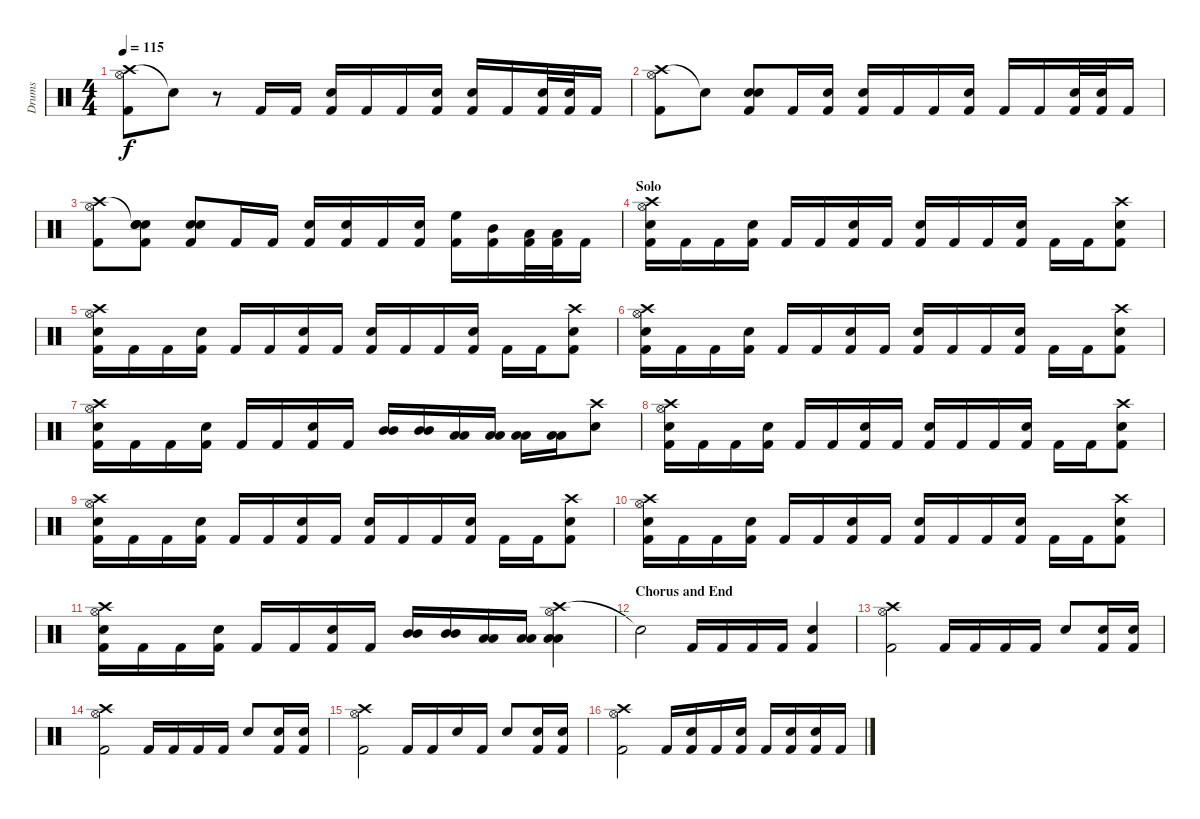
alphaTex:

\track ("Drums" "Drums") {instrument percussion}
\staff {score}
\articulation defaults
\ts (4 4)
\tempo 115
\clef neutral
\ks c
("Crash high (hit)" "Hi-Hat (open)" "Kick (hit) 2").8{dy f} "Snare (hit)"{t}.8 r.8 "Kick (hit) 2".16 "Kick (hit) 2".16 ("Electric Snare (hit)" "Kick (hit) 2").16 "Kick (hit) 2".16 "Kick (hit) 2".16 ("Electric Snare (hit)" "Kick (hit) 2").16 ("Electric Snare (hit)" "Kick (hit) 2").16 "Kick (hit) 2".16 ("Electric Snare (hit)" "Kick (hit) 2").32 ("Electric Snare (hit)" "Kick (hit) 2").32 "Kick (hit) 2".16 |
("Crash high (hit)" "Hi-Hat (open)" "Kick (hit) 2").8 "Snare (hit)"{t}.8 ("Electric Snare (hit)" "Electric Snare (hit)" "Kick (hit) 2").8 "Kick (hit) 2".16 ("Electric Snare (hit)" "Kick (hit) 2").16 ("Electric Snare (hit)" "Kick (hit) 2").16 "Kick (hit) 2".16 "Kick (hit) 2".16 ("Electric Snare (hit)" "Kick (hit) 2").16 "Kick (hit) 2".16 "Kick (hit) 2".16 ("Electric Snare (hit)" "Kick (hit) 2").32 ("Electric Snare (hit)" "Kick (hit) 2").32 "Kick (hit) 2".16 |
("Crash high (hit)" "Hi-Hat (open)" "Kick (hit) 2").8 ("Snare (hit)"{t} "Electric Snare (hit)" "Electric Snare (hit)" "Kick (hit) 2").8 ("Electric Snare (hit)" "Electric Snare (hit)" "Kick (hit) 2").8 "Kick (hit) 2".16 "Kick (hit) 2".16 ("Electric Snare (hit)" "Kick (hit) 2").16 ("Electric Snare (hit)" "Kick (hit) 2").16 "Kick (hit) 2".16 ("Electric Snare (hit)" "Kick (hit) 2").16 ("High Floor Tom (hit)" "Kick (hit) 2").16 ("Mid Tom (hit)" "Kick (hit) 2").16 ("Low Tom (hit)" "Kick (hit) 2").32 ("Low Floor Tom (hit)" "Kick (hit) 2").32 "Kick (hit) 2".16 |
\section ("" "Solo")
("Crash high (hit)" "Hi-Hat (open)" "Electric Snare (hit)" "Kick (hit) 2").16 "Kick (hit) 2".16 "Kick (hit) 2".16 ("Electric Snare (hit)" "Kick (hit) 2").16 "Kick (hit) 2".16 "Kick (hit) 2".16 ("Electric Snare (hit)" "Kick (hit) 2").16 "Kick (hit) 2".16 ("Electric Snare (hit)" "Kick (hit) 2").16 "Kick (hit) 2".16 "Kick (hit) 2".16 ("Electric Snare (hit)" "Kick (hit) 2").16 "Kick (hit) 2".16 "Kick (hit) 2".16 ("Crash high (hit)" "Electric Snare (hit)" "Kick (hit) 2").8 |
("Crash high (hit)" "Hi-Hat (open)" "Electric Snare (hit)" "Kick (hit) 2").16 "Kick (hit) 2".16 "Kick (hit) 2".16 ("Electric Snare (hit)" "Kick (hit) 2").16 "Kick (hit) 2".16 "Kick (hit) 2".16 ("Electric Snare (hit)" "Kick (hit) 2").16 "Kick (hit) 2".16 ("Electric Snare (hit)" "Kick (hit) 2").16 "Kick (hit) 2".16 "Kick (hit) 2".16 ("Electric Snare (hit)" "Kick (hit) 2").16 "Kick (hit) 2".16 "Kick (hit) 2".16 ("Crash high (hit)" "Electric Snare (hit)" "Kick (hit) 2").8 |
("Crash high (hit)" "Hi-Hat (open)" "Electric Snare (hit)" "Kick (hit) 2").16 "Kick (hit) 2".16 "Kick (hit) 2".16 ("Electric Snare (hit)" "Kick (hit) 2").16 "Kick (hit) 2".16 "Kick (hit) 2".16 ("Electric Snare (hit)" "Kick (hit) 2").16 "Kick (hit) 2".16 ("Electric Snare (hit)" "Kick (hit) 2").16 "Kick (hit) 2".16 "Kick (hit) 2".16 ("Electric Snare (hit)" "Kick (hit) 2").16 "Kick (hit) 2".16 "Kick (hit) 2".16 ("Crash high (hit)" "Electric Snare (hit)" "Kick (hit) 2").8 |
("Crash high (hit)" "Hi-Hat (open)" "Electric Snare (hit)" "Kick (hit) 2").16 "Kick (hit) 2".16 "Kick (hit) 2".16 ("Electric Snare (hit)" "Kick (hit) 2").16 "Kick (hit) 2".16 "Kick (hit) 2".16 ("Electric Snare (hit)" "Kick (hit) 2").16 "Kick (hit) 2".16 ("Mid Tom (hit)" "Mid Tom (hit)").16 ("Mid Tom (hit)" "Mid Tom (hit)").16 ("Low Tom (hit)" "Low Tom (hit)").16 ("Low Tom (hit)" "Low Tom (hit)").16 ("Low Floor Tom (hit)" "Low Floor Tom (hit)").16 ("Low Floor Tom (hit)" "Low Floor Tom (hit)").16 ("Crash high (hit)" "Electric Snare (hit)").8 |
("Crash high (hit)" "Hi-Hat (open)" "Electric Snare (hit)" "Kick (hit) 2").16 "Kick (hit) 2".16 "Kick (hit) 2".16 ("Electric Snare (hit)" "Kick (hit) 2").16 "Kick (hit) 2".16 "Kick (hit) 2".16 ("Electric Snare (hit)" "Kick (hit) 2").16 "Kick (hit) 2".16 ("Electric Snare (hit)" "Kick (hit) 2").16 "Kick (hit) 2".16 "Kick (hit) 2".16 ("Electric Snare (hit)" "Kick (hit) 2").16 "Kick (hit) 2".16 "Kick (hit) 2".16 ("Crash high (hit)" "Electric Snare (hit)" "Kick (hit) 2").8 |
("Crash high (hit)" "Hi-Hat (open)" "Electric Snare (hit)" "Kick (hit) 2").16 "Kick (hit) 2".16 "Kick (hit) 2".16 ("Electric Snare (hit)" "Kick (hit) 2").16 "Kick (hit) 2".16 "Kick (hit) 2".16 ("Electric Snare (hit)" "Kick (hit) 2").16 "Kick (hit) 2".16 ("Electric Snare (hit)" "Kick (hit) 2").16 "Kick (hit) 2".16 "Kick (hit) 2".16 ("Electric Snare (hit)" "Kick (hit) 2").16 "Kick (hit) 2".16 "Kick (hit) 2".16 ("Crash high (hit)" "Electric Snare (hit)" "Kick (hit) 2").8 |
("Crash high (hit)" "Hi-Hat (open)" "Electric Snare (hit)" "Kick (hit) 2").16 "Kick (hit) 2".16 "Kick (hit) 2".16 ("Electric Snare (hit)" "Kick (hit) 2").16 "Kick (hit) 2".16 "Kick (hit) 2".16 ("Electric Snare (hit)" "Kick (hit) 2").16 "Kick (hit) 2".16 ("Electric Snare (hit)" "Kick (hit) 2").16 "Kick (hit) 2".16 "Kick (hit) 2".16 ("Electric Snare (hit)" "Kick (hit) 2").16 "Kick (hit) 2".16 "Kick (hit) 2".16 ("Crash high (hit)" "Electric Snare (hit)" "Kick (hit) 2").8 |
("Crash high (hit)" "Hi-Hat (open)" "Electric Snare (hit)" "Kick (hit) 2").16 "Kick (hit) 2".16 "Kick (hit) 2".16 ("Electric Snare (hit)" "Kick (hit) 2").16 "Kick (hit) 2".16 "Kick (hit) 2".16 ("Electric Snare (hit)" "Kick (hit) 2").16 "Kick (hit) 2".16 ("Mid Tom (hit)" "Mid Tom (hit)").16 ("Mid Tom (hit)" "Mid Tom (hit)").16 ("Low Tom (hit)" "Low Tom (hit)").16 ("Low Tom (hit)" "Low Tom (hit)").16 ("Crash high (hit)" "Hi-Hat (open)" "Low Floor Tom (hit)" "Low Floor Tom (hit)").4 |
\section ("" "Chorus and End")
"Snare (hit)"{t}.2 "Kick (hit) 2".16 "Kick (hit) 2".16 "Kick (hit) 2".16 "Kick (hit) 2".16 ("Electric Snare (hit)" "Kick (hit) 2").4 |
("Crash high (hit)" "Hi-Hat (open)" "Kick (hit) 2").2 "Kick (hit) 2".16 "Kick (hit) 2".16 "Kick (hit) 2".16 "Kick (hit) 2".16 "Electric Snare (hit)".8 ("Electric Snare (hit)" "Kick (hit) 2").16 ("Electric Snare (hit)" "Kick (hit) 2").16 |
("Crash high (hit)" "Hi-Hat (open)" "Kick (hit) 2").2 "Kick (hit) 2".16 "Kick (hit) 2".16 "Kick (hit) 2".16 "Kick (hit) 2".16 "Electric Snare (hit)".8 ("Electric Snare (hit)" "Kick (hit) 2").16 ("Electric Snare (hit)" "Kick (hit) 2").16 |
("Crash high (hit)" "Hi-Hat (open)" "Kick (hit) 2").2 "Kick (hit) 2".16 "Kick (hit) 2".16 "Electric Snare (hit)".16 "Kick (hit) 2".16 "Electric Snare (hit)".8 ("Electric Snare (hit)" "Kick (hit) 2").16 ("Electric Snare (hit)" "Kick (hit) 2").16 |
("Crash high (hit)" "Hi-Hat (open)" "Kick (hit) 2").2 "Kick (hit) 2".16 ("Electric Snare (hit)" "Kick (hit) 2").16 "Kick (hit) 2".16 ("Electric Snare (hit)" "Kick (hit) 2").16 "Kick (hit) 2".16 ("Electric Snare (hit)" "Kick (hit) 2").16 ("Electric Snare (hit)" "Kick (hit) 2").16 "Kick (hit) 2".16
